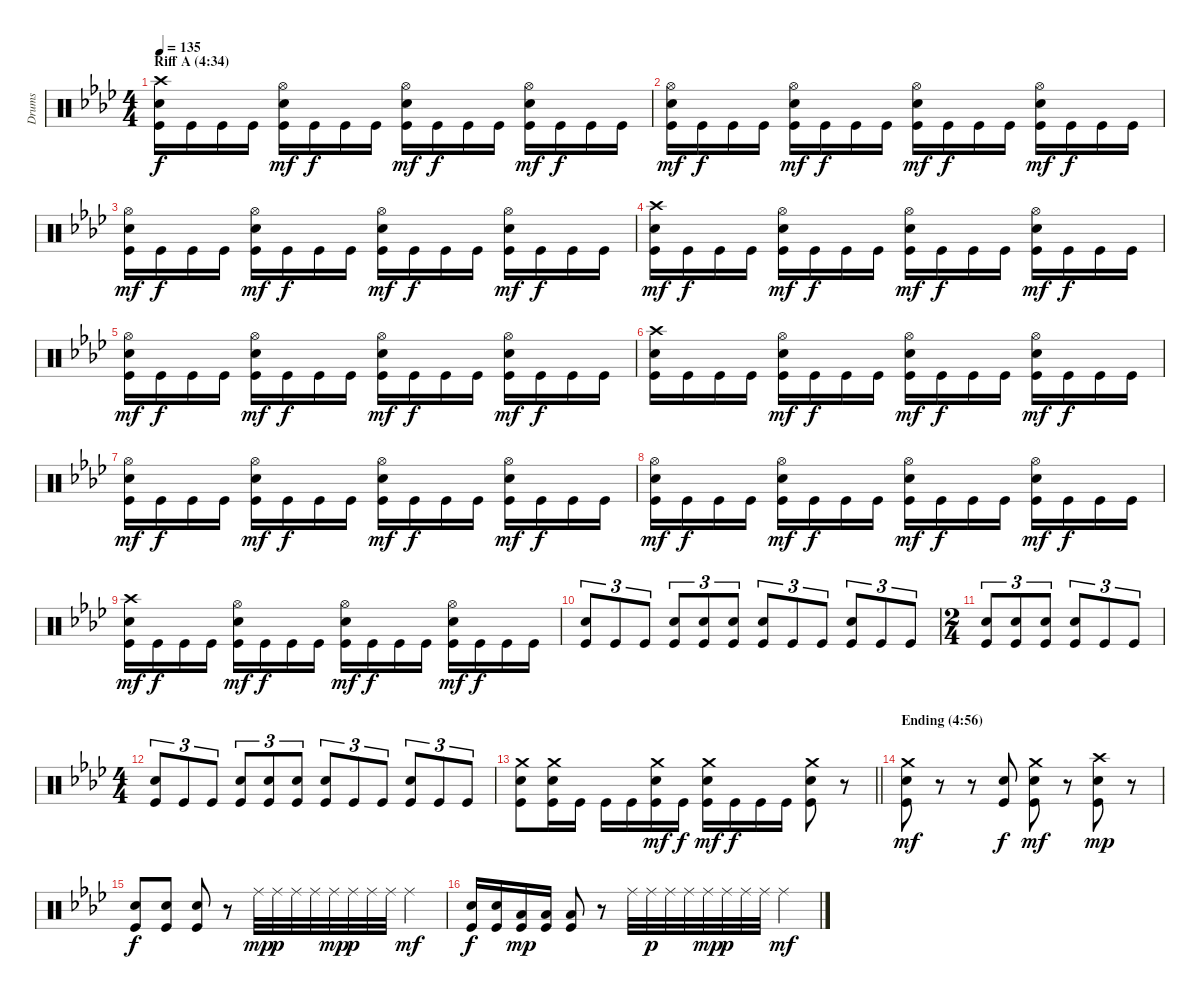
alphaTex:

\track ("Drums" "Drums") {instrument percussion}
\staff {score}
\articulation defaults
\ts (4 4)
\section ("" "Riff A (4:34)")
\tempo 135
\clef neutral
\ks fminor
("Crash high (hit)" "Snare (hit) 2" "Kick (hit)").16{dy f} "Kick (hit)".16 "Kick (hit)".16 "Kick (hit)".16 ("Hi-Hat (open)" "Snare (hit) 2" "Kick (hit)").16{dy mf} "Kick (hit)".16{dy f} "Kick (hit)".16 "Kick (hit)".16 ("Hi-Hat (open)" "Snare (hit) 2" "Kick (hit)").16{dy mf} "Kick (hit)".16{dy f} "Kick (hit)".16 "Kick (hit)".16 ("Hi-Hat (open)" "Snare (hit) 2" "Kick (hit)").16{dy mf} "Kick (hit)".16{dy f} "Kick (hit)".16 "Kick (hit)".16 |
("Hi-Hat (open)" "Snare (hit) 2" "Kick (hit)").16{dy mf} "Kick (hit)".16{dy f} "Kick (hit)".16 "Kick (hit)".16 ("Hi-Hat (open)" "Snare (hit) 2" "Kick (hit)").16{dy mf} "Kick (hit)".16{dy f} "Kick (hit)".16 "Kick (hit)".16 ("Hi-Hat (open)" "Snare (hit) 2" "Kick (hit)").16{dy mf} "Kick (hit)".16{dy f} "Kick (hit)".16 "Kick (hit)".16 ("Hi-Hat (open)" "Snare (hit) 2" "Kick (hit)").16{dy mf} "Kick (hit)".16{dy f} "Kick (hit)".16 "Kick (hit)".16 |
("Hi-Hat (open)" "Snare (hit) 2" "Kick (hit)").16{dy mf} "Kick (hit)".16{dy f} "Kick (hit)".16 "Kick (hit)".16 ("Hi-Hat (open)" "Snare (hit) 2" "Kick (hit)").16{dy mf} "Kick (hit)".16{dy f} "Kick (hit)".16 "Kick (hit)".16 ("Hi-Hat (open)" "Snare (hit) 2" "Kick (hit)").16{dy mf} "Kick (hit)".16{dy f} "Kick (hit)".16 "Kick (hit)".16 ("Hi-Hat (open)" "Snare (hit) 2" "Kick (hit)").16{dy mf} "Kick (hit)".16{dy f} "Kick (hit)".16 "Kick (hit)".16 |
("Crash high (hit)" "Snare (hit) 2" "Kick (hit)").16{dy mf} "Kick (hit)".16{dy f} "Kick (hit)".16 "Kick (hit)".16 ("Hi-Hat (open)" "Snare (hit) 2" "Kick (hit)").16{dy mf} "Kick (hit)".16{dy f} "Kick (hit)".16 "Kick (hit)".16 ("Hi-Hat (open)" "Snare (hit) 2" "Kick (hit)").16{dy mf} "Kick (hit)".16{dy f} "Kick (hit)".16 "Kick (hit)".16 ("Hi-Hat (open)" "Snare (hit) 2" "Kick (hit)").16{dy mf} "Kick (hit)".16{dy f} "Kick (hit)".16 "Kick (hit)".16 |
("Hi-Hat (open)" "Snare (hit) 2" "Kick (hit)").16{dy mf} "Kick (hit)".16{dy f} "Kick (hit)".16 "Kick (hit)".16 ("Hi-Hat (open)" "Snare (hit) 2" "Kick (hit)").16{dy mf} "Kick (hit)".16{dy f} "Kick (hit)".16 "Kick (hit)".16 ("Hi-Hat (open)" "Snare (hit) 2" "Kick (hit)").16{dy mf} "Kick (hit)".16{dy f} "Kick (hit)".16 "Kick (hit)".16 ("Hi-Hat (open)" "Snare (hit) 2" "Kick (hit)").16{dy mf} "Kick (hit)".16{dy f} "Kick (hit)".16 "Kick (hit)".16 |
("Crash high (hit)" "Snare (hit) 2" "Kick (hit)").16 "Kick (hit)".16 "Kick (hit)".16 "Kick (hit)".16 ("Hi-Hat (open)" "Snare (hit) 2" "Kick (hit)").16{dy mf} "Kick (hit)".16{dy f} "Kick (hit)".16 "Kick (hit)".16 ("Hi-Hat (open)" "Snare (hit) 2" "Kick (hit)").16{dy mf} "Kick (hit)".16{dy f} "Kick (hit)".16 "Kick (hit)".16 ("Hi-Hat (open)" "Snare (hit) 2" "Kick (hit)").16{dy mf} "Kick (hit)".16{dy f} "Kick (hit)".16 "Kick (hit)".16 |
("Hi-Hat (open)" "Snare (hit) 2" "Kick (hit)").16{dy mf} "Kick (hit)".16{dy f} "Kick (hit)".16 "Kick (hit)".16 ("Hi-Hat (open)" "Snare (hit) 2" "Kick (hit)").16{dy mf} "Kick (hit)".16{dy f} "Kick (hit)".16 "Kick (hit)".16 ("Hi-Hat (open)" "Snare (hit) 2" "Kick (hit)").16{dy mf} "Kick (hit)".16{dy f} "Kick (hit)".16 "Kick (hit)".16 ("Hi-Hat (open)" "Snare (hit) 2" "Kick (hit)").16{dy mf} "Kick (hit)".16{dy f} "Kick (hit)".16 "Kick (hit)".16 |
("Hi-Hat (open)" "Snare (hit) 2" "Kick (hit)").16{dy mf} "Kick (hit)".16{dy f} "Kick (hit)".16 "Kick (hit)".16 ("Hi-Hat (open)" "Snare (hit) 2" "Kick (hit)").16{dy mf} "Kick (hit)".16{dy f} "Kick (hit)".16 "Kick (hit)".16 ("Hi-Hat (open)" "Snare (hit) 2" "Kick (hit)").16{dy mf} "Kick (hit)".16{dy f} "Kick (hit)".16 "Kick (hit)".16 ("Hi-Hat (open)" "Snare (hit) 2" "Kick (hit)").16{dy mf} "Kick (hit)".16{dy f} "Kick (hit)".16 "Kick (hit)".16 |
("Crash high (hit)" "Snare (hit) 2" "Kick (hit)").16{dy mf} "Kick (hit)".16{dy f} "Kick (hit)".16 "Kick (hit)".16 ("Hi-Hat (open)" "Snare (hit) 2" "Kick (hit)").16{dy mf} "Kick (hit)".16{dy f} "Kick (hit)".16 "Kick (hit)".16 ("Hi-Hat (open)" "Snare (hit) 2" "Kick (hit)").16{dy mf} "Kick (hit)".16{dy f} "Kick (hit)".16 "Kick (hit)".16 ("Hi-Hat (open)" "Snare (hit) 2" "Kick (hit)").16{dy mf} "Kick (hit)".16{dy f} "Kick (hit)".16 "Kick (hit)".16 |
("Snare (hit) 2" "Kick (hit)").8{tu (3 2)} "Kick (hit)".8{tu (3 2)} "Kick (hit)".8{tu (3 2)} ("Snare (hit) 2" "Kick (hit)").8{tu (3 2)} ("Snare (hit) 2" "Kick (hit)").8{tu (3 2)} ("Snare (hit) 2" "Kick (hit)").8{tu (3 2)} ("Snare (hit) 2" "Kick (hit)").8{tu (3 2)} "Kick (hit)".8{tu (3 2)} "Kick (hit)".8{tu (3 2)} ("Snare (hit) 2" "Kick (hit)").8{tu (3 2)} "Kick (hit)".8{tu (3 2)} "Kick (hit)".8{tu (3 2)} |
\ts (2 4)
("Snare (hit) 2" "Kick (hit)").8{tu (3 2)} ("Snare (hit) 2" "Kick (hit)").8{tu (3 2)} ("Snare (hit) 2" "Kick (hit)").8{tu (3 2)} ("Snare (hit) 2" "Kick (hit)").8{tu (3 2)} "Kick (hit)".8{tu (3 2)} "Kick (hit)".8{tu (3 2)} |
\ts (4 4)
("Snare (hit) 2" "Kick (hit)").8{tu (3 2)} "Kick (hit)".8{tu (3 2)} "Kick (hit)".8{tu (3 2)} ("Snare (hit) 2" "Kick (hit)").8{tu (3 2)} ("Snare (hit) 2" "Kick (hit)").8{tu (3 2)} ("Snare (hit) 2" "Kick (hit)").8{tu (3 2)} ("Snare (hit) 2" "Kick (hit)").8{tu (3 2)} "Kick (hit)".8{tu (3 2)} "Kick (hit)".8{tu (3 2)} ("Snare (hit) 2" "Kick (hit)").8{tu (3 2)} "Kick (hit)".8{tu (3 2)} "Kick (hit)".8{tu (3 2)} |
\barLineRight lightlight
("Crash medium (hit)" "Snare (hit) 2" "Kick (hit)").8 ("Crash medium (hit)" "Snare (hit) 2" "Kick (hit)").16 "Kick (hit)".16 "Kick (hit)".16 "Kick (hit)".16 ("Crash medium (hit)" "Snare (hit) 2" "Kick (hit)").16{dy mf} "Kick (hit)".16{dy f} ("Crash medium (hit)" "Snare (hit) 2" "Kick (hit)").16{dy mf} "Kick (hit)".16{dy f} "Kick (hit)".16 "Kick (hit)".16 ("Crash medium (hit)" "Snare (hit) 2" "Kick (hit)").8 r.8 |
\section ("" "Ending (4:56)")
("Crash medium (hit)" "Snare (hit) 2" "Kick (hit)").8{dy mf} r.8 r.8 ("Snare (hit) 2" "Kick (hit)").8{dy f} ("Crash medium (hit)" "Snare (hit) 2" "Kick (hit)").8{dy mf} r.8 ("Crash high (hit)" "Snare (hit) 2" "Kick (hit)").8{dy mp} r.8 |
("Snare (hit) 2" "Kick (hit)").8{dy f} ("Snare (hit) 2" "Kick (hit)").8 ("Snare (hit) 2" "Kick (hit)").8 r.8 "Ride (middle)".32{dy mp} "Ride (middle)".32{dy p} "Ride (middle)".32 "Ride (middle)".32 "Ride (middle)".32{dy mp} "Ride (middle)".32{dy p} "Ride (middle)".32 "Ride (middle)".32 "Ride (middle)".4{dy mf} |
("Snare (hit) 2" "Kick (hit)").16{dy f} ("Snare (hit) 2" "Kick (hit)").16 ("Low Floor Tom (hit)" "Kick (hit)").16{dy mp} ("Low Floor Tom (hit)" "Kick (hit)").16 ("Low Floor Tom (hit)" "Kick (hit)").8 r.8 "Ride (middle)".32 "Ride (middle)".32{dy p} "Ride (middle)".32 "Ride (middle)".32 "Ride (middle)".32{dy mp} "Ride (middle)".32{dy p} "Ride (middle)".32 "Ride (middle)".32 "Ride (middle)".4{dy mf}
